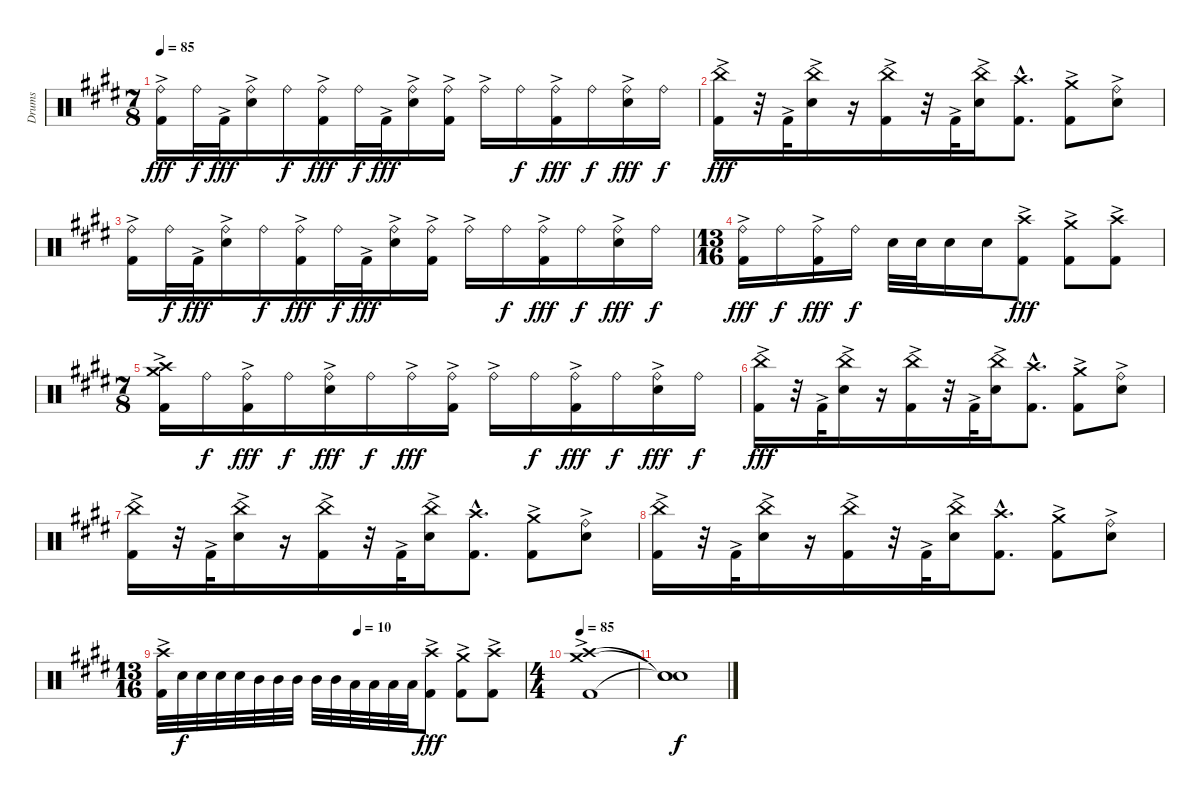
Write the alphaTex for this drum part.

\track ("Drums" "Drums") {instrument percussion}
\staff {score}
\articulation defaults
\ts (7 8)
\tempo 85
\clef neutral
\ks e
("Ride (bell)"{ac} "Kick (hit) 2"{ac}).16{dy fff} "Ride (bell)".32{dy f} "Kick (hit) 2"{ac}.32{dy fff} ("Ride (bell)"{ac} "Snare (hit) 2").16 "Ride (bell)".16{dy f} ("Ride (bell)"{ac} "Kick (hit) 2"{ac}).16{dy fff} "Ride (bell)".32{dy f} "Kick (hit) 2"{ac}.32{dy fff} ("Ride (bell)"{ac} "Snare (hit) 2").16 ("Ride (bell)" "Kick (hit) 2"{ac}).16 "Ride (bell)"{ac}.16 "Ride (bell)".16{dy f} ("Ride (bell)"{ac} "Kick (hit) 2"{ac}).16{dy fff} "Ride (bell)".16{dy f} ("Ride (bell)"{ac} "Snare (hit) 2").16{dy fff} "Ride (bell)".16{dy f} |
("China (hit)"{ac} "Kick (hit) 2"{ac}).16{dy fff} r.32 "Kick (hit) 2"{ac}.32 ("China (hit)"{ac} "Snare (hit) 2").16 r.16 ("China (hit)"{ac} "Kick (hit) 2"{ac}).16 r.32 "Kick (hit) 2"{ac}.32 ("China (hit)"{ac} "Snare (hit) 2").16 ("Crash high (hit)"{hac} "Kick (hit) 2"{hac}).8{d} ("Crash medium (hit)"{ac} "Kick (hit) 2"{ac}).8 ("Ride (bell)"{ac} "Snare (hit) 2").8 |
("Ride (bell)"{ac} "Kick (hit) 2"{ac}).16 "Ride (bell)".32{dy f} "Kick (hit) 2"{ac}.32{dy fff} ("Ride (bell)"{ac} "Snare (hit) 2").16 "Ride (bell)".16{dy f} ("Ride (bell)"{ac} "Kick (hit) 2"{ac}).16{dy fff} "Ride (bell)".32{dy f} "Kick (hit) 2"{ac}.32{dy fff} ("Ride (bell)"{ac} "Snare (hit) 2").16 ("Ride (bell)" "Kick (hit) 2"{ac}).16 "Ride (bell)"{ac}.16 "Ride (bell)".16{dy f} ("Ride (bell)"{ac} "Kick (hit) 2"{ac}).16{dy fff} "Ride (bell)".16{dy f} ("Ride (bell)"{ac} "Snare (hit) 2").16{dy fff} "Ride (bell)".16{dy f} |
\ts (13 16)
("Ride (bell)"{ac} "Kick (hit) 2"{ac}).16{dy fff} "Ride (bell)".16{dy f} ("Ride (bell)"{ac} "Kick (hit) 2"{ac}).16{dy fff} "Ride (bell)".16{dy f} "Snare (hit) 2".32 "Snare (hit) 2".32 "Snare (hit) 2".16 "Snare (hit) 2".16 ("Crash high (hit)" "Kick (hit) 2"{ac}).8{dy fff} ("Crash medium (hit)" "Kick (hit) 2"{ac}).8 ("Crash high (hit)" "Kick (hit) 2"{ac}).8 |
\ts (7 8)
("Crash high (hit)" "Crash medium (hit)" "Kick (hit) 2"{ac}).16 "Ride (bell)".16{dy f} ("Ride (bell)"{ac} "Kick (hit) 2"{ac}).16{dy fff} "Ride (bell)".16{dy f} ("Ride (bell)"{ac} "Snare (hit) 2").16{dy fff} "Ride (bell)".16{dy f} "Ride (bell)"{ac}.16{dy fff} ("Ride (bell)" "Kick (hit) 2"{ac}).16 "Ride (bell)"{ac}.16 "Ride (bell)".16{dy f} ("Ride (bell)"{ac} "Kick (hit) 2"{ac}).16{dy fff} "Ride (bell)".16{dy f} ("Ride (bell)"{ac} "Snare (hit) 2").16{dy fff} "Ride (bell)".16{dy f} |
("China (hit)"{ac} "Kick (hit) 2"{ac}).16{dy fff} r.32 "Kick (hit) 2"{ac}.32 ("China (hit)"{ac} "Snare (hit) 2").16 r.16 ("China (hit)"{ac} "Kick (hit) 2"{ac}).16 r.32 "Kick (hit) 2"{ac}.32 ("China (hit)"{ac} "Snare (hit) 2").16 ("Crash high (hit)"{hac} "Kick (hit) 2"{hac}).8{d} ("Crash medium (hit)"{ac} "Kick (hit) 2"{ac}).8 ("Ride (bell)"{ac} "Snare (hit) 2").8 |
("China (hit)"{ac} "Kick (hit) 2"{ac}).16 r.32 "Kick (hit) 2"{ac}.32 ("China (hit)"{ac} "Snare (hit) 2").16 r.16 ("China (hit)"{ac} "Kick (hit) 2"{ac}).16 r.32 "Kick (hit) 2"{ac}.32 ("China (hit)"{ac} "Snare (hit) 2").16 ("Crash high (hit)"{hac} "Kick (hit) 2"{hac}).8{d} ("Crash medium (hit)"{ac} "Kick (hit) 2"{ac}).8 ("Ride (bell)"{ac} "Snare (hit) 2").8 |
("China (hit)"{ac} "Kick (hit) 2"{ac}).16 r.32 "Kick (hit) 2"{ac}.32 ("China (hit)"{ac} "Snare (hit) 2").16 r.16 ("China (hit)"{ac} "Kick (hit) 2"{ac}).16 r.32 "Kick (hit) 2"{ac}.32 ("China (hit)"{ac} "Snare (hit) 2").16 ("Crash high (hit)"{hac} "Kick (hit) 2"{hac}).8{d} ("Crash medium (hit)"{ac} "Kick (hit) 2"{ac}).8 ("Ride (bell)"{ac} "Snare (hit) 2").8 |
\ts (13 16)
\tempo (10 0.5384615384615384)
("Crash high (hit)" "Kick (hit) 2"{ac}).32 "Snare (hit) 2".32{dy f} "Snare (hit) 2".32 "Snare (hit) 2".32 "Snare (hit) 2".32 "Mid Tom (hit)".32 "Mid Tom (hit)".32 "Mid Tom (hit)".32 "Mid Tom (hit)".32 "Mid Tom (hit)".32 "Low Tom (hit)".32 "Low Tom (hit)".32 "Low Tom (hit)".32 "Low Tom (hit)".32 ("Crash high (hit)" "Kick (hit) 2"{ac}).8{dy fff} ("Crash medium (hit)" "Kick (hit) 2"{ac}).8 ("Crash high (hit)" "Kick (hit) 2"{ac}).8 |
\ts (4 4)
\tempo 85
("Crash high (hit)" "Crash medium (hit)" "Kick (hit) 2"{ac}).1 |
("Snare (hit)"{t} "Snare (hit)"{t} "Snare (hit)"{t}).1{dy f}
